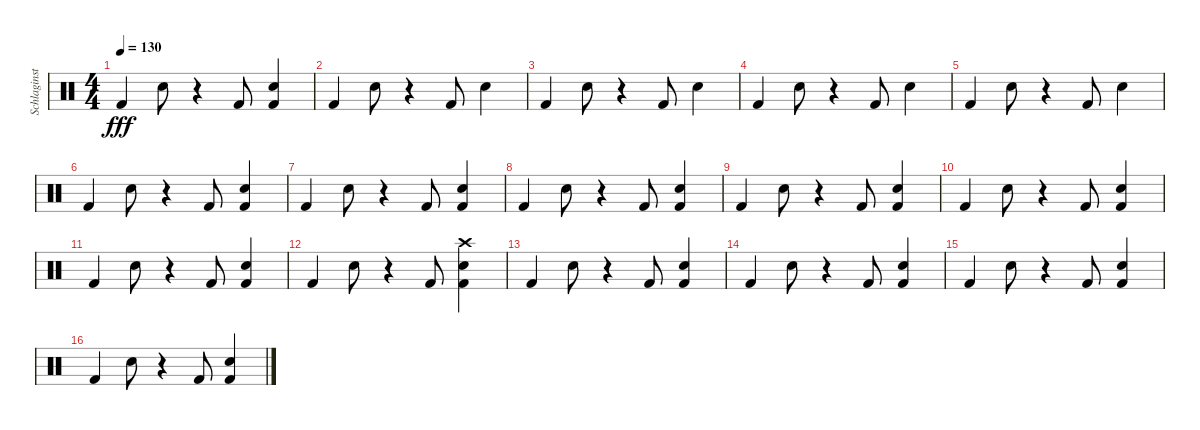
\track ("Schlaginstrumente - Auswahl" "Schlaginst") {instrument percussion}
\staff {score}
\articulation defaults
\ts (4 4)
\tempo 130
\clef neutral
\ks c "Kick (hit) 2".4{dy fff} "Snare (hit) 2".8
r.4 "Kick (hit) 2".8 ("Snare (hit) 2" "Kick (hit) 2").4 |
"Kick (hit) 2".4 "Snare (hit) 2".8 r.4 "Kick (hit) 2".8 "Snare (hit) 2".4 |
"Kick (hit) 2".4 "Snare (hit) 2".8 r.4 "Kick (hit) 2".8 "Snare (hit) 2".4 |
"Kick (hit) 2".4 "Snare (hit) 2".8 r.4 "Kick (hit) 2".8 "Snare (hit) 2".4 |
"Kick (hit) 2".4 "Snare (hit) 2".8 r.4 "Kick (hit) 2".8 "Snare (hit) 2".4 |
"Kick (hit) 2".4 "Snare (hit) 2".8 r.4 "Kick (hit) 2".8 ("Snare (hit) 2" "Kick (hit) 2").4 |
"Kick (hit) 2".4 "Snare (hit) 2".8 r.4 "Kick (hit) 2".8 ("Snare (hit) 2" "Kick (hit) 2").4 |
"Kick (hit) 2".4 "Snare (hit) 2".8 r.4 "Kick (hit) 2".8 ("Snare (hit) 2" "Kick (hit) 2").4 |
"Kick (hit) 2".4 "Snare (hit) 2".8 r.4 "Kick (hit) 2".8 ("Snare (hit) 2" "Kick (hit) 2").4 |
"Kick (hit) 2".4 "Snare (hit) 2".8 r.4 "Kick (hit) 2".8 ("Snare (hit) 2" "Kick (hit) 2").4 |
"Kick (hit) 2".4 "Snare (hit) 2".8 r.4 "Kick (hit) 2".8 ("Snare (hit) 2" "Kick (hit) 2").4 |
"Kick (hit) 2".4 "Snare (hit) 2".8 r.4 "Kick (hit) 2".8 ("Crash high (hit)" "Snare (hit) 2" "Kick (hit) 2").4 |
"Kick (hit) 2".4 "Snare (hit) 2".8 r.4 "Kick (hit) 2".8 ("Snare (hit) 2" "Kick (hit) 2").4 |
"Kick (hit) 2".4 "Snare (hit) 2".8 r.4 "Kick (hit) 2".8 ("Snare (hit) 2" "Kick (hit) 2").4 |
"Kick (hit) 2".4 "Snare (hit) 2".8 r.4 "Kick (hit) 2".8 ("Snare (hit) 2" "Kick (hit) 2").4 |
"Kick (hit) 2".4 "Snare (hit) 2".8 r.4 "Kick (hit) 2".8 ("Snare (hit) 2" "Kick (hit) 2").4
